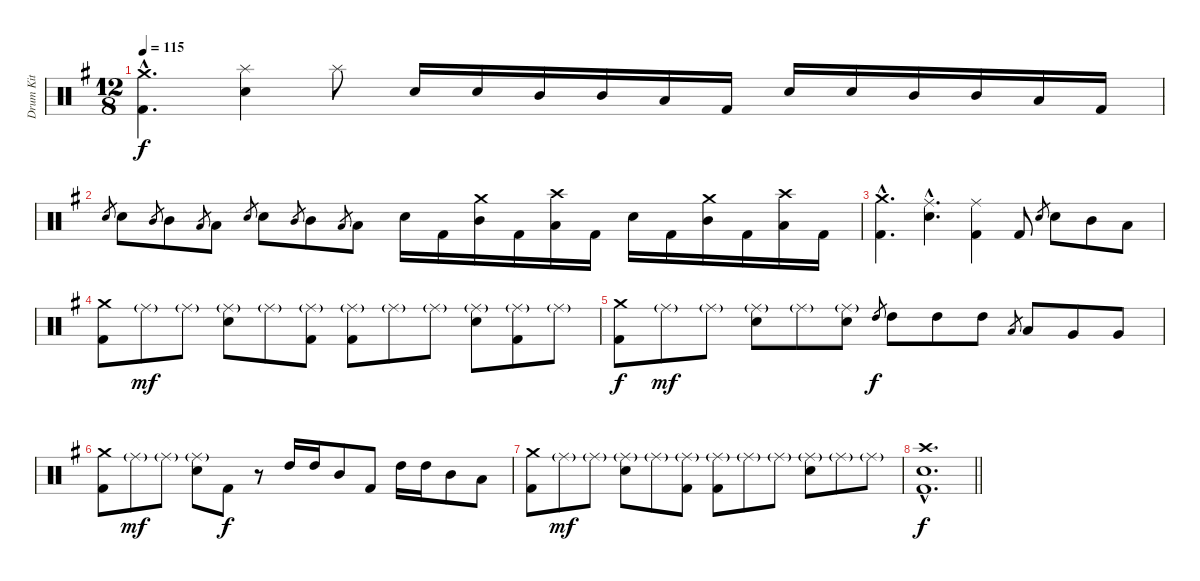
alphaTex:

\track ("Drum Kit" "Drum Kit") {instrument percussion}
\staff {score}
\articulation defaults
\ts (12 8)
\tempo 115
\clef neutral
\ks g
("Crash medium (hit)"{hac} "Kick (hit) 2"{hac}).4{d dy f} ("Splash (hit)" "Electric Snare (hit)").4 "Splash (hit)".8 "Electric Snare (hit)".16 "Electric Snare (hit)".16 "Mid Tom (hit)".16 "Mid Tom (hit)".16 "Low Tom (hit)".16 "Kick (hit) 2".16 "Electric Snare (hit)".16 "Electric Snare (hit)".16 "Mid Tom (hit)".16 "Mid Tom (hit)".16 "Low Tom (hit)".16 "Kick (hit) 2".16 |
"Electric Snare (hit)".8{gr} "Electric Snare (hit)".8 "Mid Tom (hit)".8{gr} "Mid Tom (hit)".8 "Low Tom (hit)".8{gr} "Low Tom (hit)".8 "Electric Snare (hit)".8{gr} "Electric Snare (hit)".8 "Mid Tom (hit)".8{gr} "Mid Tom (hit)".8 "Low Tom (hit)".8{gr} "Low Tom (hit)".8 "Electric Snare (hit)".16 "Kick (hit) 2".16 ("Crash medium (hit)" "Mid Tom (hit)").16 "Kick (hit) 2".16 ("Crash high (hit)" "Low Tom (hit)").16 "Kick (hit) 2".16 "Electric Snare (hit)".16 "Kick (hit) 2".16 ("Crash medium (hit)" "Mid Tom (hit)").16 "Kick (hit) 2".16 ("Crash high (hit)" "Low Tom (hit)").16 "Kick (hit) 2".16 |
("Crash medium (hit)"{hac} "Kick (hit) 2"{hac}).4{d} ("Ride (middle)"{hac} "Electric Snare (hit)"{hac}).4{d} ("Ride (middle)" "Kick (hit) 2").4 "Kick (hit) 2".8 "Electric Snare (hit)".8{gr} "Electric Snare (hit)".8 "Mid Tom (hit)".8 "Low Tom (hit)".8 |
("Crash medium (hit)" "Kick (hit) 2").8{volume 12} "Ride (middle)"{g}.8{dy mf} "Ride (middle)"{g}.8 ("Ride (middle)"{g} "Electric Snare (hit)").8 "Ride (middle)"{g}.8 ("Ride (middle)"{g} "Kick (hit) 2").8 ("Ride (middle)"{g} "Kick (hit) 2").8 "Ride (middle)"{g}.8 "Ride (middle)"{g}.8 ("Ride (middle)"{g} "Electric Snare (hit)").8 ("Ride (middle)"{g} "Kick (hit) 2").8 "Ride (middle)"{g}.8 |
("Crash medium (hit)" "Kick (hit) 2").8{dy f volume 9} "Ride (middle)"{g}.8{dy mf} "Ride (middle)"{g}.8 ("Ride (middle)"{g} "Electric Snare (hit)").8 "Ride (middle)"{g}.8 ("Ride (middle)"{g} "Electric Snare (hit)").8 "High Tom (hit)".8{gr dy f} "High Tom (hit)".8 "High Tom (hit)".8 "High Tom (hit)".8 "Low Tom (hit)".8{gr} "Low Tom (hit)".8 "Very Low Tom (hit)".8 "Very Low Tom (hit)".8 |
("Crash medium (hit)" "Kick (hit) 2").8{volume 7} "Ride (middle)"{g}.8{dy mf} "Ride (middle)"{g}.8 ("Ride (middle)"{g} "Electric Snare (hit)").8 "Kick (hit) 2".8{dy f} r.8 "High Tom (hit)".16 "High Tom (hit)".16 "Mid Tom (hit)".8 "Kick (hit) 2".8 "High Tom (hit)".16 "High Tom (hit)".16 "Mid Tom (hit)".8 "Low Tom (hit)".8 |
("Crash medium (hit)" "Kick (hit) 2").8{volume 0} "Ride (middle)"{g}.8{dy mf} "Ride (middle)"{g}.8 ("Ride (middle)"{g} "Electric Snare (hit)").8 "Ride (middle)"{g}.8 ("Ride (middle)"{g} "Kick (hit) 2").8 ("Ride (middle)"{g} "Kick (hit) 2").8 "Ride (middle)"{g}.8 "Ride (middle)"{g}.8 ("Ride (middle)"{g} "Electric Snare (hit)").8 "Ride (middle)"{g}.8 "Ride (middle)"{g}.8 |
\barLineRight lightlight
("Crash high (hit)"{hac} "Snare (hit) 2"{hac} "Kick (hit) 2"{hac}).1{d dy f}
